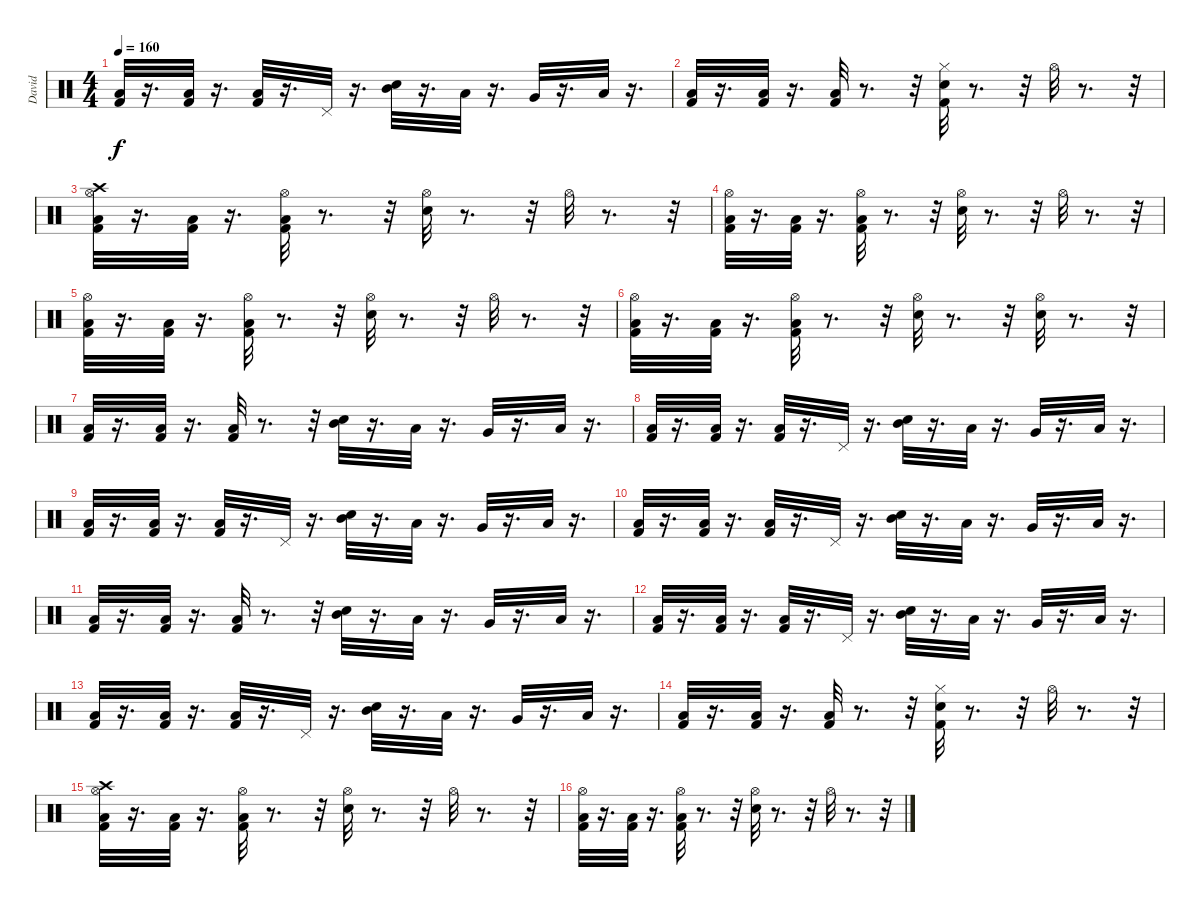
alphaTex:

\track ("David" "David") {instrument percussion}
\staff {score}
\articulation defaults
\ts (4 4)
\tempo 160
\clef neutral
\ks c
("Kick (hit) 2" "Low Floor Tom (hit)").32{dy f} r.16{d} ("Kick (hit) 2" "Low Floor Tom (hit)").32 r.16{d} ("Kick (hit) 2" "Low Floor Tom (hit)").32 r.16{d} "Pedal Hi-Hat (hit)".32 r.16{d} ("Electric Snare (hit)" "Mid Tom (hit)").32 r.16{d} "Low Tom (hit)".32 r.16{d} "Very Low Tom (hit)".32 r.16{d} "Low Floor Tom (hit)".32 r.16{d} |
("Kick (hit) 2" "Low Floor Tom (hit)").32 r.16{d} ("Kick (hit) 2" "Low Floor Tom (hit)").32 r.16{d} ("Kick (hit) 2" "Low Floor Tom (hit)").32 r.8{d} r.32 ("Electric Snare (hit)" "Hi-Hat (closed)" "Kick (hit) 2").32 r.8{d} r.32 "Hi-Hat (open)".32 r.8{d} r.32 |
("Kick (hit) 2" "Hi-Hat (open)" "Crash high (hit)" "Low Floor Tom (hit)").32 r.16{d} ("Kick (hit) 2" "Low Floor Tom (hit)").32 r.16{d} ("Kick (hit) 2" "Hi-Hat (open)" "Low Floor Tom (hit)").32 r.8{d} r.32 ("Hi-Hat (open)" "Electric Snare (hit)").32 r.8{d} r.32 "Hi-Hat (open)".32 r.8{d} r.32 |
("Kick (hit) 2" "Hi-Hat (open)" "Low Floor Tom (hit)").32 r.16{d} ("Kick (hit) 2" "Low Floor Tom (hit)").32 r.16{d} ("Kick (hit) 2" "Hi-Hat (open)" "Low Floor Tom (hit)").32 r.8{d} r.32 ("Hi-Hat (open)" "Electric Snare (hit)").32 r.8{d} r.32 "Hi-Hat (open)".32 r.8{d} r.32 |
("Kick (hit) 2" "Hi-Hat (open)" "Low Floor Tom (hit)").32 r.16{d} ("Kick (hit) 2" "Low Floor Tom (hit)").32 r.16{d} ("Kick (hit) 2" "Hi-Hat (open)" "Low Floor Tom (hit)").32 r.8{d} r.32 ("Hi-Hat (open)" "Electric Snare (hit)").32 r.8{d} r.32 "Hi-Hat (open)".32 r.8{d} r.32 |
("Kick (hit) 2" "Hi-Hat (open)" "Low Floor Tom (hit)").32 r.16{d} ("Kick (hit) 2" "Low Floor Tom (hit)").32 r.16{d} ("Kick (hit) 2" "Hi-Hat (open)" "Low Floor Tom (hit)").32 r.8{d} r.32 ("Hi-Hat (open)" "Electric Snare (hit)").32 r.8{d} r.32 ("Hi-Hat (open)" "Electric Snare (hit)").32 r.8{d} r.32 |
("Kick (hit) 2" "Low Floor Tom (hit)").32 r.16{d} ("Kick (hit) 2" "Low Floor Tom (hit)").32 r.16{d} ("Kick (hit) 2" "Low Floor Tom (hit)").32 r.8{d} r.32 ("Electric Snare (hit)" "Mid Tom (hit)").32 r.16{d} "Low Tom (hit)".32 r.16{d} "Very Low Tom (hit)".32 r.16{d} "Low Floor Tom (hit)".32 r.16{d} |
("Kick (hit) 2" "Low Floor Tom (hit)").32 r.16{d} ("Kick (hit) 2" "Low Floor Tom (hit)").32 r.16{d} ("Kick (hit) 2" "Low Floor Tom (hit)").32 r.16{d} "Pedal Hi-Hat (hit)".32 r.16{d} ("Electric Snare (hit)" "Mid Tom (hit)").32 r.16{d} "Low Tom (hit)".32 r.16{d} "Very Low Tom (hit)".32 r.16{d} "Low Floor Tom (hit)".32 r.16{d} |
("Kick (hit) 2" "Low Floor Tom (hit)").32 r.16{d} ("Kick (hit) 2" "Low Floor Tom (hit)").32 r.16{d} ("Kick (hit) 2" "Low Floor Tom (hit)").32 r.16{d} "Pedal Hi-Hat (hit)".32 r.16{d} ("Electric Snare (hit)" "Mid Tom (hit)").32 r.16{d} "Low Tom (hit)".32 r.16{d} "Very Low Tom (hit)".32 r.16{d} "Low Floor Tom (hit)".32 r.16{d} |
("Kick (hit) 2" "Low Floor Tom (hit)").32 r.16{d} ("Kick (hit) 2" "Low Floor Tom (hit)").32 r.16{d} ("Kick (hit) 2" "Low Floor Tom (hit)").32 r.16{d} "Pedal Hi-Hat (hit)".32 r.16{d} ("Electric Snare (hit)" "Mid Tom (hit)").32 r.16{d} "Low Tom (hit)".32 r.16{d} "Very Low Tom (hit)".32 r.16{d} "Low Floor Tom (hit)".32 r.16{d} |
("Kick (hit) 2" "Low Floor Tom (hit)").32 r.16{d} ("Kick (hit) 2" "Low Floor Tom (hit)").32 r.16{d} ("Kick (hit) 2" "Low Floor Tom (hit)").32 r.8{d} r.32 ("Electric Snare (hit)" "Mid Tom (hit)").32 r.16{d} "Low Tom (hit)".32 r.16{d} "Very Low Tom (hit)".32 r.16{d} "Low Floor Tom (hit)".32 r.16{d} |
("Kick (hit) 2" "Low Floor Tom (hit)").32 r.16{d} ("Kick (hit) 2" "Low Floor Tom (hit)").32 r.16{d} ("Kick (hit) 2" "Low Floor Tom (hit)").32 r.16{d} "Pedal Hi-Hat (hit)".32 r.16{d} ("Electric Snare (hit)" "Mid Tom (hit)").32 r.16{d} "Low Tom (hit)".32 r.16{d} "Very Low Tom (hit)".32 r.16{d} "Low Floor Tom (hit)".32 r.16{d} |
("Kick (hit) 2" "Low Floor Tom (hit)").32 r.16{d} ("Kick (hit) 2" "Low Floor Tom (hit)").32 r.16{d} ("Kick (hit) 2" "Low Floor Tom (hit)").32 r.16{d} "Pedal Hi-Hat (hit)".32 r.16{d} ("Electric Snare (hit)" "Mid Tom (hit)").32 r.16{d} "Low Tom (hit)".32 r.16{d} "Very Low Tom (hit)".32 r.16{d} "Low Floor Tom (hit)".32 r.16{d} |
("Kick (hit) 2" "Low Floor Tom (hit)").32 r.16{d} ("Kick (hit) 2" "Low Floor Tom (hit)").32 r.16{d} ("Kick (hit) 2" "Low Floor Tom (hit)").32 r.8{d} r.32 ("Electric Snare (hit)" "Hi-Hat (closed)" "Kick (hit) 2").32 r.8{d} r.32 "Hi-Hat (open)".32 r.8{d} r.32 |
("Kick (hit) 2" "Hi-Hat (open)" "Crash high (hit)" "Low Floor Tom (hit)").32 r.16{d} ("Kick (hit) 2" "Low Floor Tom (hit)").32 r.16{d} ("Kick (hit) 2" "Hi-Hat (open)" "Low Floor Tom (hit)").32 r.8{d} r.32 ("Hi-Hat (open)" "Electric Snare (hit)").32 r.8{d} r.32 "Hi-Hat (open)".32 r.8{d} r.32 |
("Kick (hit) 2" "Hi-Hat (open)" "Low Floor Tom (hit)").32 r.16{d} ("Kick (hit) 2" "Low Floor Tom (hit)").32 r.16{d} ("Kick (hit) 2" "Hi-Hat (open)" "Low Floor Tom (hit)").32 r.8{d} r.32 ("Hi-Hat (open)" "Electric Snare (hit)").32 r.8{d} r.32 "Hi-Hat (open)".32 r.8{d} r.32
